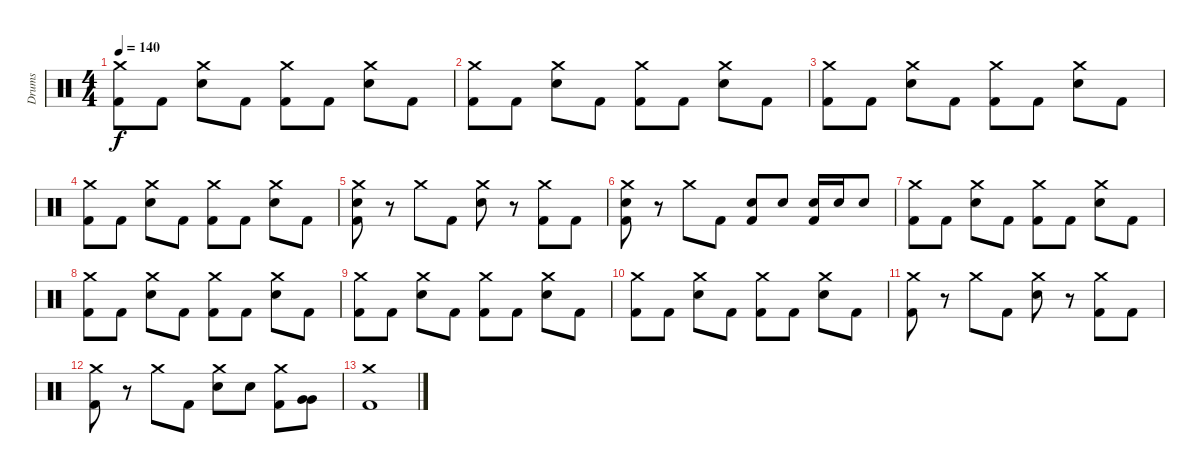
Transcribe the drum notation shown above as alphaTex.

\track ("Drums" "Drums") {instrument percussion}
\staff {score}
\articulation defaults
\ts (4 4)
\tempo 140
\clef neutral
\ks c
("Crash medium (hit)" "Kick (hit) 2").8{dy f} "Kick (hit) 2".8 ("Crash medium (hit)" "Electric Snare (hit)").8 "Kick (hit) 2".8 ("Crash medium (hit)" "Kick (hit) 2").8 "Kick (hit) 2".8 ("Crash medium (hit)" "Electric Snare (hit)").8 "Kick (hit) 2".8 |
("Crash medium (hit)" "Kick (hit) 2").8 "Kick (hit) 2".8 ("Crash medium (hit)" "Electric Snare (hit)").8 "Kick (hit) 2".8 ("Crash medium (hit)" "Kick (hit) 2").8 "Kick (hit) 2".8 ("Crash medium (hit)" "Electric Snare (hit)").8 "Kick (hit) 2".8 |
("Crash medium (hit)" "Kick (hit) 2").8 "Kick (hit) 2".8 ("Crash medium (hit)" "Electric Snare (hit)").8 "Kick (hit) 2".8 ("Crash medium (hit)" "Kick (hit) 2").8 "Kick (hit) 2".8 ("Crash medium (hit)" "Electric Snare (hit)").8 "Kick (hit) 2".8 |
("Crash medium (hit)" "Kick (hit) 2").8 "Kick (hit) 2".8 ("Crash medium (hit)" "Electric Snare (hit)").8 "Kick (hit) 2".8 ("Crash medium (hit)" "Kick (hit) 2").8 "Kick (hit) 2".8 ("Crash medium (hit)" "Electric Snare (hit)").8 "Kick (hit) 2".8 |
("Crash medium (hit)" "Electric Snare (hit)" "Kick (hit) 2").8 r.8 "Crash medium (hit)".8 "Kick (hit) 2".8 ("Crash medium (hit)" "Electric Snare (hit)").8 r.8 ("Crash medium (hit)" "Kick (hit) 2").8 "Kick (hit) 2".8 |
("Crash medium (hit)" "Electric Snare (hit)" "Kick (hit) 2").8 r.8 "Crash medium (hit)".8 "Kick (hit) 2".8 ("Electric Snare (hit)" "Kick (hit) 2").8 "Electric Snare (hit)".8 ("Electric Snare (hit)" "Kick (hit) 2").16 "Electric Snare (hit)".16 "Electric Snare (hit)".8 |
("Crash medium (hit)" "Kick (hit) 2").8 "Kick (hit) 2".8 ("Crash medium (hit)" "Electric Snare (hit)").8 "Kick (hit) 2".8 ("Crash medium (hit)" "Kick (hit) 2").8 "Kick (hit) 2".8 ("Crash medium (hit)" "Electric Snare (hit)").8 "Kick (hit) 2".8 |
("Crash medium (hit)" "Kick (hit) 2").8 "Kick (hit) 2".8 ("Crash medium (hit)" "Electric Snare (hit)").8 "Kick (hit) 2".8 ("Crash medium (hit)" "Kick (hit) 2").8 "Kick (hit) 2".8 ("Crash medium (hit)" "Electric Snare (hit)").8 "Kick (hit) 2".8 |
("Crash medium (hit)" "Kick (hit) 2").8 "Kick (hit) 2".8 ("Crash medium (hit)" "Electric Snare (hit)").8 "Kick (hit) 2".8 ("Crash medium (hit)" "Kick (hit) 2").8 "Kick (hit) 2".8 ("Crash medium (hit)" "Electric Snare (hit)").8 "Kick (hit) 2".8 |
("Crash medium (hit)" "Kick (hit) 2").8 "Kick (hit) 2".8 ("Crash medium (hit)" "Electric Snare (hit)").8 "Kick (hit) 2".8 ("Crash medium (hit)" "Kick (hit) 2").8 "Kick (hit) 2".8 ("Crash medium (hit)" "Electric Snare (hit)").8 "Kick (hit) 2".8 |
("Crash medium (hit)" "Kick (hit) 2").8 r.8 "Crash medium (hit)".8 "Kick (hit) 2".8 ("Crash medium (hit)" "Electric Snare (hit)").8 r.8 ("Crash medium (hit)" "Kick (hit) 2").8 "Kick (hit) 2".8 |
("Crash medium (hit)" "Kick (hit) 2").8 r.8 "Crash medium (hit)".8 "Kick (hit) 2".8 ("Crash medium (hit)" "Electric Snare (hit)").8 "Electric Snare (hit)".8 ("Crash medium (hit)" "Kick (hit) 2").8 ("Very Low Tom (hit)" "Very Low Tom (hit)").8 |
("Crash medium (hit)" "Kick (hit) 2").1
